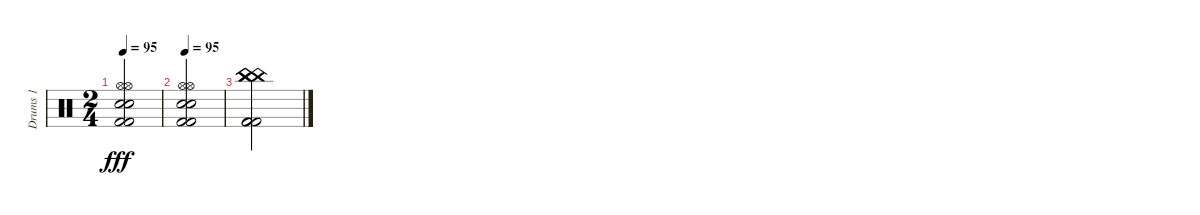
\track ("Drums 1" "Drums 1") {instrument percussion}
\staff {score}
\articulation defaults
\ts (2 4)
\tempo 95
\clef neutral
\ks c
("Snare (hit) 2" "Hi-Hat (open)" "Kick (hit) 2" "Hi-Hat (open)" "Snare (hit) 2" "Kick (hit) 2").2{dy fff} |
\tempo 95
("Snare (hit) 2" "Hi-Hat (open)" "Kick (hit) 2" "Hi-Hat (open)" "Snare (hit) 2" "Kick (hit) 2").2 |
("China (hit)" "China (hit)" "China (hit)" "Kick (hit) 2" "Kick (hit) 2" "Kick (hit) 2").2
